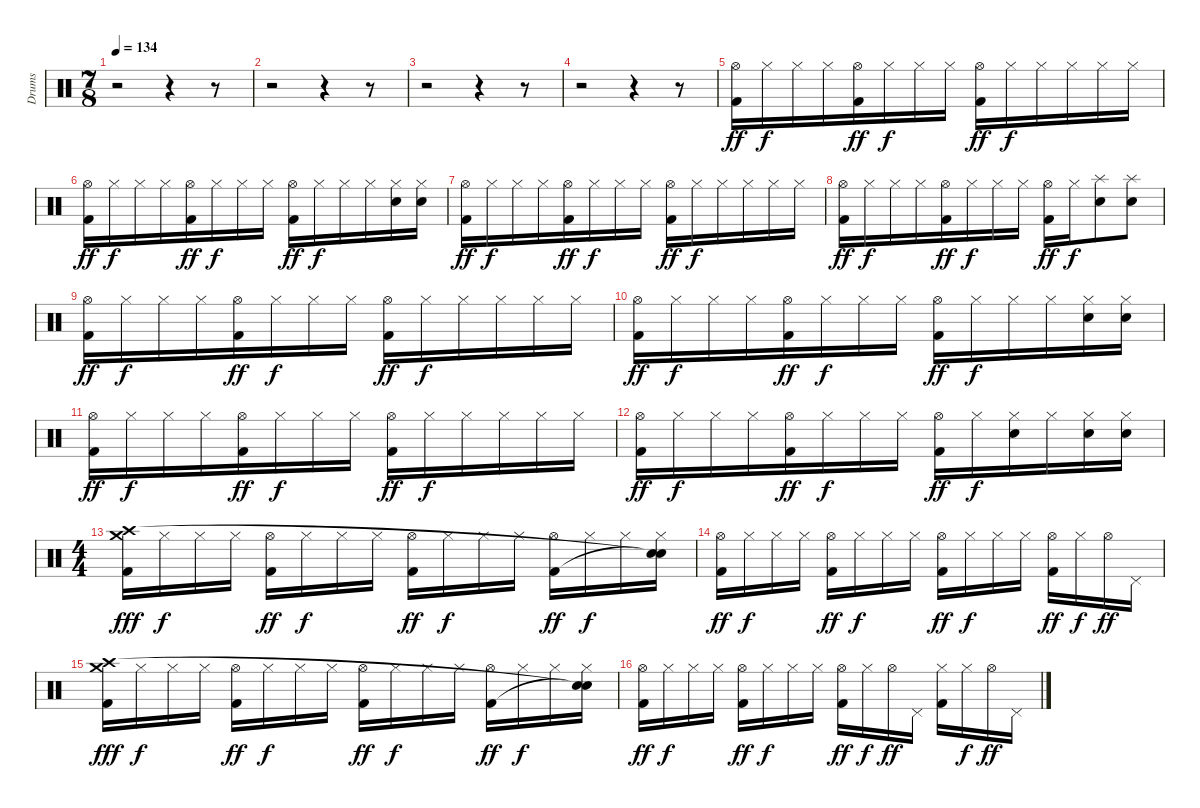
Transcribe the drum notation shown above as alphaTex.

\track ("Drums" "Drums") {instrument percussion}
\staff {score}
\articulation defaults
\ts (7 8)
\tempo 134
\clef neutral
\ks c
r.2{dy ff} r.4 r.8 |
r.2 r.4 r.8 |
r.2 r.4 r.8 |
r.2 r.4 r.8 |
("Hi-Hat (open)" "Kick (hit) 2").16 "Hi-Hat (closed)".16{dy f} "Hi-Hat (closed)".16 "Hi-Hat (closed)".16 ("Hi-Hat (open)" "Kick (hit) 2").16{dy ff} "Hi-Hat (closed)".16{dy f} "Hi-Hat (closed)".16 "Hi-Hat (closed)".16 ("Hi-Hat (open)" "Kick (hit) 2").16{dy ff} "Hi-Hat (closed)".16{dy f} "Hi-Hat (closed)".16 "Hi-Hat (closed)".16 "Hi-Hat (closed)".16 "Hi-Hat (closed)".16 |
("Hi-Hat (open)" "Kick (hit) 2").16{dy ff} "Hi-Hat (closed)".16{dy f} "Hi-Hat (closed)".16 "Hi-Hat (closed)".16 ("Hi-Hat (open)" "Kick (hit) 2").16{dy ff} "Hi-Hat (closed)".16{dy f} "Hi-Hat (closed)".16 "Hi-Hat (closed)".16 ("Hi-Hat (open)" "Kick (hit) 2").16{dy ff} "Hi-Hat (closed)".16{dy f} "Hi-Hat (closed)".16 "Hi-Hat (closed)".16 ("Hi-Hat (closed)" "Snare (hit) 2").16 ("Hi-Hat (closed)" "Snare (hit) 2").16 |
("Hi-Hat (open)" "Kick (hit) 2").16{dy ff} "Hi-Hat (closed)".16{dy f} "Hi-Hat (closed)".16 "Hi-Hat (closed)".16 ("Hi-Hat (open)" "Kick (hit) 2").16{dy ff} "Hi-Hat (closed)".16{dy f} "Hi-Hat (closed)".16 "Hi-Hat (closed)".16 ("Hi-Hat (open)" "Kick (hit) 2").16{dy ff} "Hi-Hat (closed)".16{dy f} "Hi-Hat (closed)".16 "Hi-Hat (closed)".16 "Hi-Hat (closed)".16 "Hi-Hat (closed)".16 |
("Hi-Hat (open)" "Kick (hit) 2").16{dy ff} "Hi-Hat (closed)".16{dy f} "Hi-Hat (closed)".16 "Hi-Hat (closed)".16 ("Hi-Hat (open)" "Kick (hit) 2").16{dy ff} "Hi-Hat (closed)".16{dy f} "Hi-Hat (closed)".16 "Hi-Hat (closed)".16 ("Hi-Hat (open)" "Kick (hit) 2").16{dy ff} "Hi-Hat (closed)".16{dy f} ("Splash (hit)" "Snare (hit) 2").8 ("Splash (hit)" "Snare (hit) 2").8 |
("Hi-Hat (open)" "Kick (hit) 2").16{dy ff} "Hi-Hat (closed)".16{dy f} "Hi-Hat (closed)".16 "Hi-Hat (closed)".16 ("Hi-Hat (open)" "Kick (hit) 2").16{dy ff} "Hi-Hat (closed)".16{dy f} "Hi-Hat (closed)".16 "Hi-Hat (closed)".16 ("Hi-Hat (open)" "Kick (hit) 2").16{dy ff} "Hi-Hat (closed)".16{dy f} "Hi-Hat (closed)".16 "Hi-Hat (closed)".16 "Hi-Hat (closed)".16 "Hi-Hat (closed)".16 |
("Hi-Hat (open)" "Kick (hit) 2").16{dy ff} "Hi-Hat (closed)".16{dy f} "Hi-Hat (closed)".16 "Hi-Hat (closed)".16 ("Hi-Hat (open)" "Kick (hit) 2").16{dy ff} "Hi-Hat (closed)".16{dy f} "Hi-Hat (closed)".16 "Hi-Hat (closed)".16 ("Hi-Hat (open)" "Kick (hit) 2").16{dy ff} "Hi-Hat (closed)".16{dy f} "Hi-Hat (closed)".16 "Hi-Hat (closed)".16 ("Hi-Hat (closed)" "Snare (hit) 2").16 ("Hi-Hat (closed)" "Snare (hit) 2").16 |
("Hi-Hat (open)" "Kick (hit) 2").16{dy ff} "Hi-Hat (closed)".16{dy f} "Hi-Hat (closed)".16 "Hi-Hat (closed)".16 ("Hi-Hat (open)" "Kick (hit) 2").16{dy ff} "Hi-Hat (closed)".16{dy f} "Hi-Hat (closed)".16 "Hi-Hat (closed)".16 ("Hi-Hat (open)" "Kick (hit) 2").16{dy ff} "Hi-Hat (closed)".16{dy f} "Hi-Hat (closed)".16 "Hi-Hat (closed)".16 "Hi-Hat (closed)".16 "Hi-Hat (closed)".16 |
("Hi-Hat (open)" "Kick (hit) 2").16{dy ff} "Hi-Hat (closed)".16{dy f} "Hi-Hat (closed)".16 "Hi-Hat (closed)".16 ("Hi-Hat (open)" "Kick (hit) 2").16{dy ff} "Hi-Hat (closed)".16{dy f} "Hi-Hat (closed)".16 "Hi-Hat (closed)".16 ("Hi-Hat (open)" "Kick (hit) 2").16{dy ff} "Hi-Hat (closed)".16{dy f} ("Hi-Hat (closed)" "Snare (hit) 2").16 "Hi-Hat (closed)".16 ("Hi-Hat (closed)" "Snare (hit) 2").16 ("Hi-Hat (closed)" "Snare (hit) 2").16 |
\ts (4 4)
("Crash medium (hit)" "Kick (hit) 2" "Crash high (hit)").16{dy fff} "Hi-Hat (closed)".16{dy f} "Hi-Hat (closed)".16 "Hi-Hat (closed)".16 ("Hi-Hat (open)" "Kick (hit) 2").16{dy ff} "Hi-Hat (closed)".16{dy f} "Hi-Hat (closed)".16 "Hi-Hat (closed)".16 ("Hi-Hat (open)" "Kick (hit) 2").16{dy ff} "Hi-Hat (closed)".16{dy f} "Hi-Hat (closed)".16 "Hi-Hat (closed)".16 ("Hi-Hat (open)" "Kick (hit) 2").16{dy ff} "Hi-Hat (closed)".16{dy f} "Hi-Hat (closed)".16 ("Hi-Hat (closed)" "Snare (hit)"{t} "Snare (hit)"{t}).16 |
("Hi-Hat (open)" "Kick (hit) 2").16{dy ff} "Hi-Hat (closed)".16{dy f} "Hi-Hat (closed)".16 "Hi-Hat (closed)".16 ("Hi-Hat (open)" "Kick (hit) 2").16{dy ff} "Hi-Hat (closed)".16{dy f} "Hi-Hat (closed)".16 "Hi-Hat (closed)".16 ("Hi-Hat (open)" "Kick (hit) 2").16{dy ff} "Hi-Hat (closed)".16{dy f} "Hi-Hat (closed)".16 "Hi-Hat (closed)".16 ("Hi-Hat (open)" "Kick (hit) 2").16{dy ff} "Hi-Hat (closed)".16{dy f} "Hi-Hat (open)".16{dy ff} "Pedal Hi-Hat (hit)".16 |
("Crash medium (hit)" "Kick (hit) 2" "Crash high (hit)").16{dy fff} "Hi-Hat (closed)".16{dy f} "Hi-Hat (closed)".16 "Hi-Hat (closed)".16 ("Hi-Hat (open)" "Kick (hit) 2").16{dy ff} "Hi-Hat (closed)".16{dy f} "Hi-Hat (closed)".16 "Hi-Hat (closed)".16 ("Hi-Hat (open)" "Kick (hit) 2").16{dy ff} "Hi-Hat (closed)".16{dy f} "Hi-Hat (closed)".16 "Hi-Hat (closed)".16 ("Hi-Hat (open)" "Kick (hit) 2").16{dy ff} "Hi-Hat (closed)".16{dy f} "Hi-Hat (closed)".16 ("Hi-Hat (closed)" "Snare (hit)"{t} "Snare (hit)"{t}).16 |
("Hi-Hat (open)" "Kick (hit) 2").16{dy ff} "Hi-Hat (closed)".16{dy f} "Hi-Hat (closed)".16 "Hi-Hat (closed)".16 ("Hi-Hat (open)" "Kick (hit) 2").16{dy ff} "Hi-Hat (closed)".16{dy f} "Hi-Hat (closed)".16 "Hi-Hat (closed)".16 ("Hi-Hat (open)" "Kick (hit) 2").16{dy ff} "Hi-Hat (closed)".16{dy f} "Hi-Hat (open)".16{dy ff} "Pedal Hi-Hat (hit)".16 ("Hi-Hat (closed)" "Kick (hit) 2").16 "Hi-Hat (closed)".16{dy f} "Hi-Hat (open)".16{dy ff} "Pedal Hi-Hat (hit)".16
